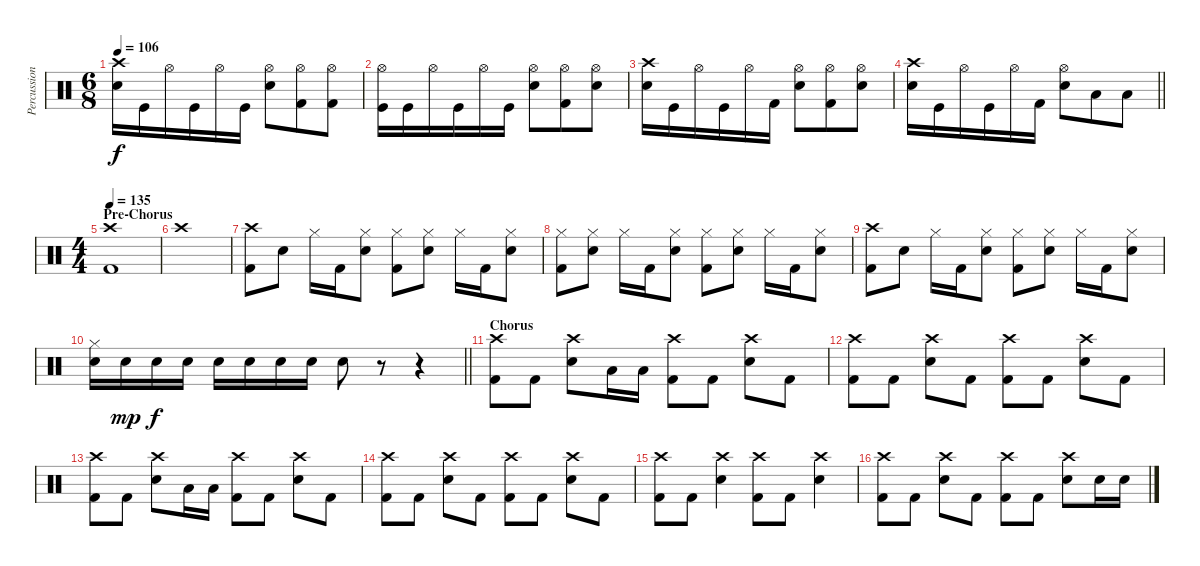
\track ("Percussion" "Percussion") {instrument percussion}
\staff {score}
\articulation defaults
\ts (6 8)
\tempo 106
\clef neutral
\ks c
("Snare (hit) 2" "Crash high (hit)").16{dy f} "Kick (hit)".16 "Hi-Hat (open)".16 "Kick (hit)".16 "Hi-Hat (open)".16 "Kick (hit)".16 ("Snare (hit) 2" "Hi-Hat (open)").8 ("Kick (hit) 2" "Hi-Hat (open)").8 ("Kick (hit) 2" "Hi-Hat (open)").8 |
("Kick (hit)" "Hi-Hat (open)").16 "Kick (hit)".16 "Hi-Hat (open)".16 "Kick (hit)".16 "Hi-Hat (open)".16 "Kick (hit)".16 ("Snare (hit) 2" "Hi-Hat (open)").8 ("Kick (hit) 2" "Hi-Hat (open)").8 ("Snare (hit) 2" "Hi-Hat (open)").8 |
("Snare (hit) 2" "Crash high (hit)").16 "Kick (hit)".16 "Hi-Hat (open)".16 "Kick (hit)".16 "Hi-Hat (open)".16 "Kick (hit) 2".16 ("Snare (hit) 2" "Hi-Hat (open)").8 ("Kick (hit) 2" "Hi-Hat (open)").8 ("Snare (hit) 2" "Hi-Hat (open)").8 |
\barLineRight lightlight
("Snare (hit) 2" "Crash high (hit)").16 "Kick (hit)".16 "Hi-Hat (open)".16 "Kick (hit)".16 "Hi-Hat (open)".16 "Kick (hit) 2".16 ("Snare (hit) 2" "Hi-Hat (open)").8 "Low Tom (hit)".8 "Low Floor Tom (hit)".8 |
\ts (4 4)
\section ("" "Pre-Chorus")
\tempo 135
("Crash high (hit)" "Kick (hit) 2").1 |
"Crash high (hit)".1 |
("Crash high (hit)" "Kick (hit) 2").8 "Snare (hit) 2".8 "Hi-Hat (closed)".16 "Kick (hit) 2".16 ("Snare (hit) 2" "Hi-Hat (closed)").8 ("Hi-Hat (closed)" "Kick (hit) 2").8 ("Snare (hit) 2" "Hi-Hat (closed)").8 "Hi-Hat (closed)".16 "Kick (hit) 2".16 ("Snare (hit) 2" "Hi-Hat (closed)").8 |
("Hi-Hat (closed)" "Kick (hit) 2").8 ("Snare (hit) 2" "Hi-Hat (closed)").8 "Hi-Hat (closed)".16 "Kick (hit) 2".16 ("Snare (hit) 2" "Hi-Hat (closed)").8 ("Hi-Hat (closed)" "Kick (hit) 2").8 ("Snare (hit) 2" "Hi-Hat (closed)").8 "Hi-Hat (closed)".16 "Kick (hit) 2".16 ("Snare (hit) 2" "Hi-Hat (closed)").8 |
("Crash high (hit)" "Kick (hit) 2").8 "Snare (hit) 2".8 "Hi-Hat (closed)".16 "Kick (hit) 2".16 ("Snare (hit) 2" "Hi-Hat (closed)").8 ("Hi-Hat (closed)" "Kick (hit) 2").8 ("Snare (hit) 2" "Hi-Hat (closed)").8 "Hi-Hat (closed)".16 "Kick (hit) 2".16 ("Snare (hit) 2" "Hi-Hat (closed)").8 |
\barLineRight lightlight
("Hi-Hat (closed)" "Snare (hit) 2").16 "Snare (hit) 2".16{dy mp} "Snare (hit) 2".16{dy f} "Snare (hit) 2".16 "Snare (hit) 2".16 "Snare (hit) 2".16 "Snare (hit) 2".16 "Snare (hit) 2".16 "Snare (hit) 2".8 r.8 r.4 |
\section ("" "Chorus")
("Kick (hit) 2" "Crash high (hit)").8 "Kick (hit) 2".8 ("Snare (hit) 2" "Crash high (hit)").8 "Low Floor Tom (hit)".16 "Low Floor Tom (hit)".16 ("Kick (hit) 2" "Crash high (hit)").8 "Kick (hit) 2".8 ("Snare (hit) 2" "Crash high (hit)").8 "Kick (hit) 2".8 |
("Kick (hit) 2" "Crash high (hit)").8 "Kick (hit) 2".8 ("Snare (hit) 2" "Crash high (hit)").8 "Kick (hit) 2".8 ("Kick (hit) 2" "Crash high (hit)").8 "Kick (hit) 2".8 ("Snare (hit) 2" "Crash high (hit)").8 "Kick (hit) 2".8 |
("Kick (hit) 2" "Crash high (hit)").8 "Kick (hit) 2".8 ("Snare (hit) 2" "Crash high (hit)").8 "Low Floor Tom (hit)".16 "Low Floor Tom (hit)".16 ("Kick (hit) 2" "Crash high (hit)").8 "Kick (hit) 2".8 ("Snare (hit) 2" "Crash high (hit)").8 "Kick (hit) 2".8 |
("Kick (hit) 2" "Crash high (hit)").8 "Kick (hit) 2".8 ("Snare (hit) 2" "Crash high (hit)").8 "Kick (hit) 2".8 ("Kick (hit) 2" "Crash high (hit)").8 "Kick (hit) 2".8 ("Snare (hit) 2" "Crash high (hit)").8 "Kick (hit) 2".8 |
("Kick (hit) 2" "Crash high (hit)").8 "Kick (hit) 2".8 ("Snare (hit) 2" "Crash high (hit)").4 ("Kick (hit) 2" "Crash high (hit)").8 "Kick (hit) 2".8 ("Snare (hit) 2" "Crash high (hit)").4 |
("Kick (hit) 2" "Crash high (hit)").8 "Kick (hit) 2".8 ("Snare (hit) 2" "Crash high (hit)").8 "Kick (hit) 2".8 ("Kick (hit) 2" "Crash high (hit)").8 "Kick (hit) 2".8 ("Snare (hit) 2" "Crash high (hit)").8 "Snare (hit) 2".16 "Snare (hit) 2".16
